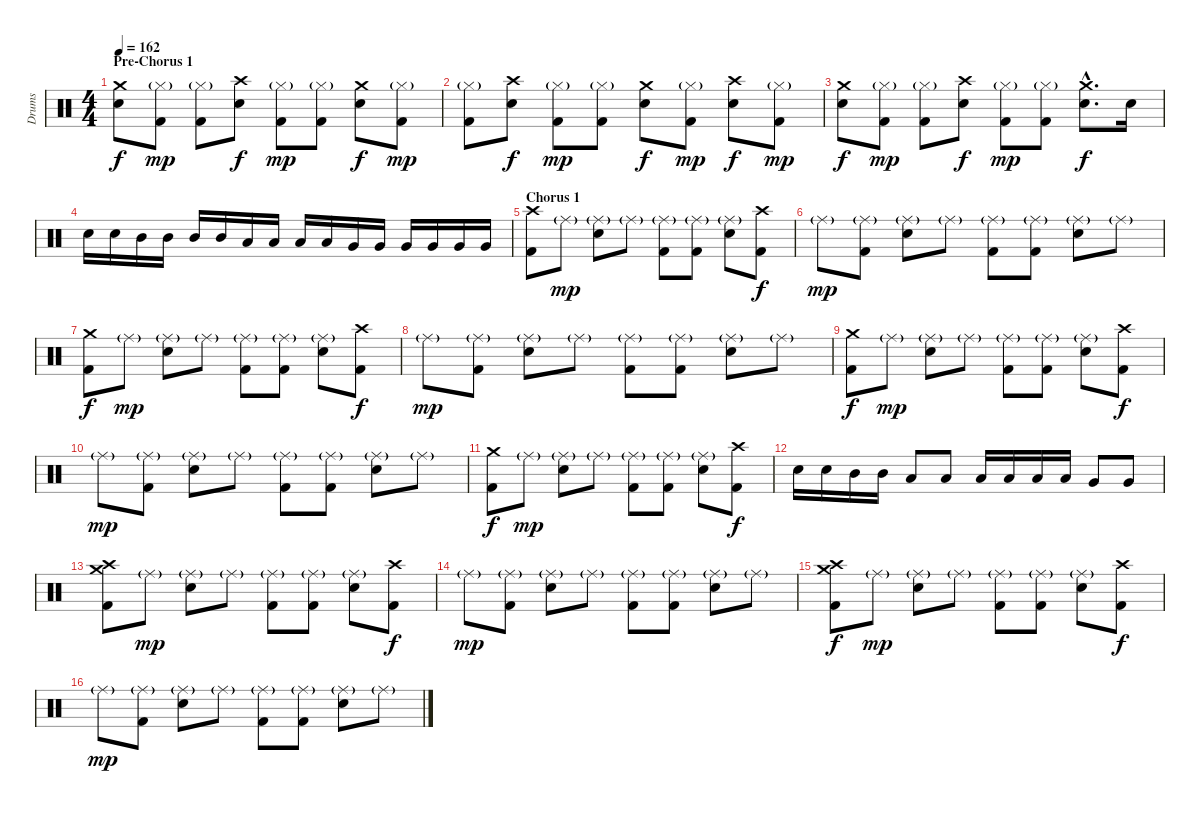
\track ("Drums" "Drums") {instrument percussion}
\staff {score}
\articulation defaults
\ts (4 4)
\section ("" "Pre-Chorus 1")
\tempo 162
\clef neutral
\ks c
("Crash medium (hit)" "Snare (hit) 2").8{dy f} ("Hi-Hat (closed)"{g} "Kick (hit) 2").8{dy mp} ("Hi-Hat (closed)"{g} "Kick (hit) 2").8 ("Crash high (hit)" "Snare (hit) 2").8{dy f} ("Hi-Hat (closed)"{g} "Kick (hit) 2").8{dy mp} ("Hi-Hat (closed)"{g} "Kick (hit) 2").8 ("Crash medium (hit)" "Snare (hit) 2").8{dy f} ("Hi-Hat (closed)"{g} "Kick (hit) 2").8{dy mp} |
("Hi-Hat (closed)"{g} "Kick (hit) 2").8 ("Crash high (hit)" "Snare (hit) 2").8{dy f} ("Hi-Hat (closed)"{g} "Kick (hit) 2").8{dy mp} ("Hi-Hat (closed)"{g} "Kick (hit) 2").8 ("Crash medium (hit)" "Snare (hit) 2").8{dy f} ("Hi-Hat (closed)"{g} "Kick (hit) 2").8{dy mp} ("Crash high (hit)" "Snare (hit) 2").8{dy f} ("Hi-Hat (closed)"{g} "Kick (hit) 2").8{dy mp} |
("Crash medium (hit)" "Snare (hit) 2").8{dy f} ("Hi-Hat (closed)"{g} "Kick (hit) 2").8{dy mp} ("Hi-Hat (closed)"{g} "Kick (hit) 2").8 ("Crash high (hit)" "Snare (hit) 2").8{dy f} ("Hi-Hat (closed)"{g} "Kick (hit) 2").8{dy mp} ("Hi-Hat (closed)"{g} "Kick (hit) 2").8 ("Crash medium (hit)"{hac} "Snare (hit) 2"{hac}).8{d dy f} "Snare (hit) 2".16 |
"Snare (hit) 2".16 "Snare (hit) 2".16 "Mid Tom (hit)".16 "Mid Tom (hit)".16 "Mid Tom (hit)".16 "Mid Tom (hit)".16 "Low Tom (hit)".16 "Low Tom (hit)".16 "Low Tom (hit)".16 "Low Tom (hit)".16 "Very Low Tom (hit)".16 "Very Low Tom (hit)".16 "Very Low Tom (hit)".16 "Very Low Tom (hit)".16 "Very Low Tom (hit)".16 "Very Low Tom (hit)".16 |
\section ("" "Chorus 1")
("Crash high (hit)" "Kick (hit) 2").8 "Ride (middle)"{g}.8{dy mp} ("Ride (middle)"{g} "Snare (hit) 2").8 "Ride (middle)"{g}.8 ("Ride (middle)"{g} "Kick (hit) 2").8 ("Ride (middle)"{g} "Kick (hit) 2").8 ("Ride (middle)"{g} "Snare (hit) 2").8 ("Crash high (hit)" "Kick (hit) 2").8{dy f} |
"Ride (middle)"{g}.8{dy mp} ("Ride (middle)"{g} "Kick (hit) 2").8 ("Ride (middle)"{g} "Snare (hit) 2").8 "Ride (middle)"{g}.8 ("Ride (middle)"{g} "Kick (hit) 2").8 ("Ride (middle)"{g} "Kick (hit) 2").8 ("Ride (middle)"{g} "Snare (hit) 2").8 "Ride (middle)"{g}.8 |
("Crash medium (hit)" "Kick (hit) 2").8{dy f} "Ride (middle)"{g}.8{dy mp} ("Ride (middle)"{g} "Snare (hit) 2").8 "Ride (middle)"{g}.8 ("Ride (middle)"{g} "Kick (hit) 2").8 ("Ride (middle)"{g} "Kick (hit) 2").8 ("Ride (middle)"{g} "Snare (hit) 2").8 ("Crash high (hit)" "Kick (hit) 2").8{dy f} |
"Ride (middle)"{g}.8{dy mp} ("Ride (middle)"{g} "Kick (hit) 2").8 ("Ride (middle)"{g} "Snare (hit) 2").8 "Ride (middle)"{g}.8 ("Ride (middle)"{g} "Kick (hit) 2").8 ("Ride (middle)"{g} "Kick (hit) 2").8 ("Ride (middle)"{g} "Snare (hit) 2").8 "Ride (middle)"{g}.8 |
("Crash medium (hit)" "Kick (hit) 2").8{dy f} "Ride (middle)"{g}.8{dy mp} ("Ride (middle)"{g} "Snare (hit) 2").8 "Ride (middle)"{g}.8 ("Ride (middle)"{g} "Kick (hit) 2").8 ("Ride (middle)"{g} "Kick (hit) 2").8 ("Ride (middle)"{g} "Snare (hit) 2").8 ("Crash high (hit)" "Kick (hit) 2").8{dy f} |
"Ride (middle)"{g}.8{dy mp} ("Ride (middle)"{g} "Kick (hit) 2").8 ("Ride (middle)"{g} "Snare (hit) 2").8 "Ride (middle)"{g}.8 ("Ride (middle)"{g} "Kick (hit) 2").8 ("Ride (middle)"{g} "Kick (hit) 2").8 ("Ride (middle)"{g} "Snare (hit) 2").8 "Ride (middle)"{g}.8 |
("Crash medium (hit)" "Kick (hit) 2").8{dy f} "Ride (middle)"{g}.8{dy mp} ("Ride (middle)"{g} "Snare (hit) 2").8 "Ride (middle)"{g}.8 ("Ride (middle)"{g} "Kick (hit) 2").8 ("Ride (middle)"{g} "Kick (hit) 2").8 ("Ride (middle)"{g} "Snare (hit) 2").8 ("Crash high (hit)" "Kick (hit) 2").8{dy f} |
"Snare (hit) 2".16 "Snare (hit) 2".16 "Mid Tom (hit)".16 "Mid Tom (hit)".16 "Low Tom (hit)".8 "Low Tom (hit)".8 "Low Tom (hit)".16 "Low Tom (hit)".16 "Low Tom (hit)".16 "Low Tom (hit)".16 "Very Low Tom (hit)".8 "Very Low Tom (hit)".8 |
("Crash medium (hit)" "Crash high (hit)" "Kick (hit) 2").8 "Ride (middle)"{g}.8{dy mp} ("Ride (middle)"{g} "Snare (hit) 2").8 "Ride (middle)"{g}.8 ("Ride (middle)"{g} "Kick (hit) 2").8 ("Ride (middle)"{g} "Kick (hit) 2").8 ("Ride (middle)"{g} "Snare (hit) 2").8 ("Crash high (hit)" "Kick (hit) 2").8{dy f} |
"Ride (middle)"{g}.8{dy mp} ("Ride (middle)"{g} "Kick (hit) 2").8 ("Ride (middle)"{g} "Snare (hit) 2").8 "Ride (middle)"{g}.8 ("Ride (middle)"{g} "Kick (hit) 2").8 ("Ride (middle)"{g} "Kick (hit) 2").8 ("Ride (middle)"{g} "Snare (hit) 2").8 "Ride (middle)"{g}.8 |
("Crash medium (hit)" "Crash high (hit)" "Kick (hit) 2").8{dy f} "Ride (middle)"{g}.8{dy mp} ("Ride (middle)"{g} "Snare (hit) 2").8 "Ride (middle)"{g}.8 ("Ride (middle)"{g} "Kick (hit) 2").8 ("Ride (middle)"{g} "Kick (hit) 2").8 ("Ride (middle)"{g} "Snare (hit) 2").8 ("Crash high (hit)" "Kick (hit) 2").8{dy f} |
"Ride (middle)"{g}.8{dy mp} ("Ride (middle)"{g} "Kick (hit) 2").8 ("Ride (middle)"{g} "Snare (hit) 2").8 "Ride (middle)"{g}.8 ("Ride (middle)"{g} "Kick (hit) 2").8 ("Ride (middle)"{g} "Kick (hit) 2").8 ("Ride (middle)"{g} "Snare (hit) 2").8 "Ride (middle)"{g}.8
